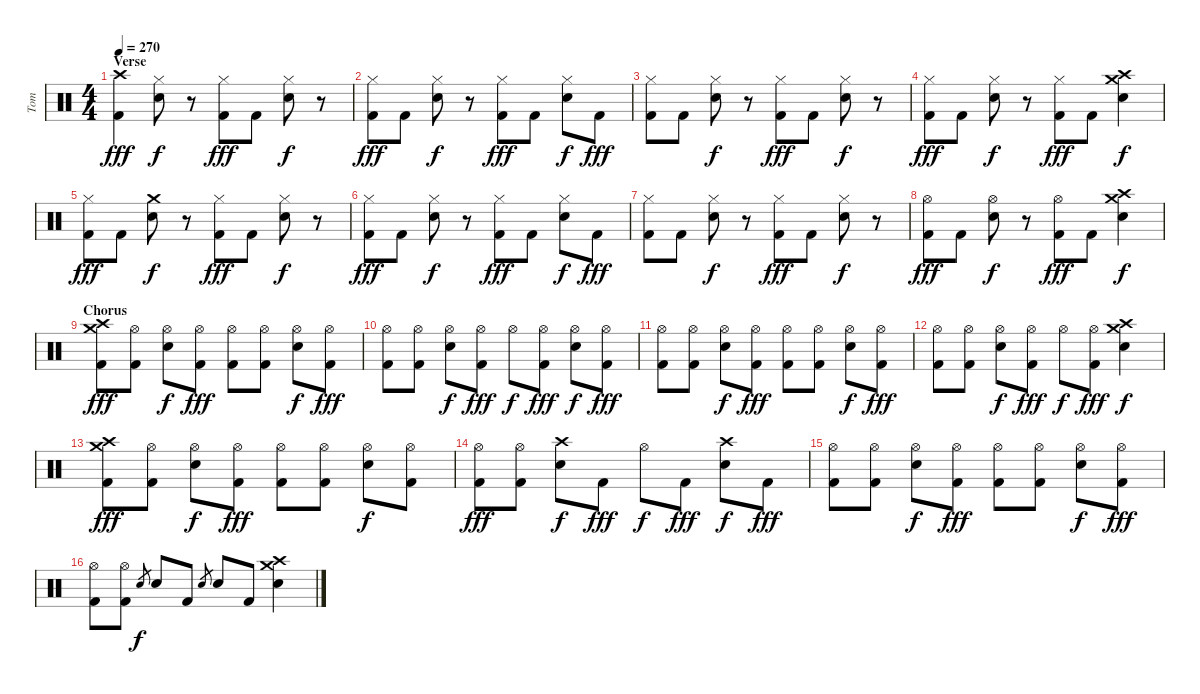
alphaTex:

\track ("Tom" "Tom") {instrument percussion}
\staff {score}
\articulation defaults
\ts (4 4)
\section ("" "Verse")
\tempo 270
\clef neutral
\ks c
("Crash high (hit)" "Kick (hit) 2").4{dy fff} ("Electric Snare (hit)" "Hi-Hat (closed)").8{dy f} r.8 ("Kick (hit) 2" "Hi-Hat (closed)").8{dy fff} "Kick (hit) 2".8 ("Electric Snare (hit)" "Hi-Hat (closed)").8{dy f} r.8 |
("Kick (hit) 2" "Hi-Hat (closed)").8{dy fff} "Kick (hit) 2".8 ("Electric Snare (hit)" "Hi-Hat (closed)").8{dy f} r.8 ("Kick (hit) 2" "Hi-Hat (closed)").8{dy fff} "Kick (hit) 2".8 ("Electric Snare (hit)" "Hi-Hat (closed)").8{dy f} "Kick (hit) 2".8{dy fff} |
("Kick (hit) 2" "Hi-Hat (closed)").8 "Kick (hit) 2".8 ("Electric Snare (hit)" "Hi-Hat (closed)").8{dy f} r.8 ("Kick (hit) 2" "Hi-Hat (closed)").8{dy fff} "Kick (hit) 2".8 ("Electric Snare (hit)" "Hi-Hat (closed)").8{dy f} r.8 |
("Kick (hit) 2" "Hi-Hat (closed)").8{dy fff} "Kick (hit) 2".8 ("Electric Snare (hit)" "Hi-Hat (closed)").8{dy f} r.8 ("Kick (hit) 2" "Hi-Hat (closed)").8{dy fff} "Kick (hit) 2".8 ("Electric Snare (hit)" "Crash medium (hit)" "Crash high (hit)").4{dy f} |
("Kick (hit) 2" "Hi-Hat (closed)").8{dy fff} "Kick (hit) 2".8 ("Crash medium (hit)" "Electric Snare (hit)").8{dy f} r.8 ("Kick (hit) 2" "Hi-Hat (closed)").8{dy fff} "Kick (hit) 2".8 ("Electric Snare (hit)" "Hi-Hat (closed)").8{dy f} r.8 |
("Kick (hit) 2" "Hi-Hat (closed)").8{dy fff} "Kick (hit) 2".8 ("Electric Snare (hit)" "Hi-Hat (closed)").8{dy f} r.8 ("Kick (hit) 2" "Hi-Hat (closed)").8{dy fff} "Kick (hit) 2".8 ("Electric Snare (hit)" "Hi-Hat (closed)").8{dy f} "Kick (hit) 2".8{dy fff} |
("Kick (hit) 2" "Hi-Hat (closed)").8 "Kick (hit) 2".8 ("Electric Snare (hit)" "Hi-Hat (closed)").8{dy f} r.8 ("Kick (hit) 2" "Hi-Hat (closed)").8{dy fff} "Kick (hit) 2".8 ("Electric Snare (hit)" "Hi-Hat (closed)").8{dy f} r.8 |
("Kick (hit) 2" "Hi-Hat (open)").8{dy fff} "Kick (hit) 2".8 ("Electric Snare (hit)" "Hi-Hat (open)").8{dy f} r.8 ("Kick (hit) 2" "Hi-Hat (open)").8{dy fff} "Kick (hit) 2".8 ("Electric Snare (hit)" "Crash medium (hit)" "Crash high (hit)").4{dy f} |
\section ("" "Chorus")
("Kick (hit) 2" "Crash medium (hit)" "Crash high (hit)").8{dy fff} ("Kick (hit) 2" "Hi-Hat (open)").8 ("Electric Snare (hit)" "Hi-Hat (open)").8{dy f} ("Kick (hit) 2" "Hi-Hat (open)").8{dy fff} ("Kick (hit) 2" "Hi-Hat (open)").8 ("Kick (hit) 2" "Hi-Hat (open)").8 ("Electric Snare (hit)" "Hi-Hat (open)").8{dy f} ("Kick (hit) 2" "Hi-Hat (open)").8{dy fff} |
("Kick (hit) 2" "Hi-Hat (open)").8 ("Kick (hit) 2" "Hi-Hat (open)").8 ("Electric Snare (hit)" "Hi-Hat (open)").8{dy f} ("Kick (hit) 2" "Hi-Hat (open)").8{dy fff} "Hi-Hat (open)".8{dy f} ("Kick (hit) 2" "Hi-Hat (open)").8{dy fff} ("Electric Snare (hit)" "Hi-Hat (open)").8{dy f} ("Kick (hit) 2" "Hi-Hat (open)").8{dy fff} |
("Kick (hit) 2" "Hi-Hat (open)").8 ("Kick (hit) 2" "Hi-Hat (open)").8 ("Electric Snare (hit)" "Hi-Hat (open)").8{dy f} ("Kick (hit) 2" "Hi-Hat (open)").8{dy fff} ("Kick (hit) 2" "Hi-Hat (open)").8 ("Kick (hit) 2" "Hi-Hat (open)").8 ("Electric Snare (hit)" "Hi-Hat (open)").8{dy f} ("Kick (hit) 2" "Hi-Hat (open)").8{dy fff} |
("Kick (hit) 2" "Hi-Hat (open)").8 ("Kick (hit) 2" "Hi-Hat (open)").8 ("Electric Snare (hit)" "Hi-Hat (open)").8{dy f} ("Kick (hit) 2" "Hi-Hat (open)").8{dy fff} "Hi-Hat (open)".8{dy f} ("Kick (hit) 2" "Hi-Hat (open)").8{dy fff} ("Electric Snare (hit)" "Crash medium (hit)" "Crash high (hit)").4{dy f} |
("Kick (hit) 2" "Crash medium (hit)" "Crash high (hit)").8{dy fff} ("Kick (hit) 2" "Hi-Hat (open)").8 ("Electric Snare (hit)" "Hi-Hat (open)").8{dy f} ("Kick (hit) 2" "Hi-Hat (open)").8{dy fff} ("Kick (hit) 2" "Hi-Hat (open)").8 ("Kick (hit) 2" "Hi-Hat (open)").8 ("Electric Snare (hit)" "Hi-Hat (open)").8{dy f} ("Kick (hit) 2" "Hi-Hat (open)").8 |
("Kick (hit) 2" "Hi-Hat (open)").8{dy fff} ("Kick (hit) 2" "Hi-Hat (open)").8 ("Electric Snare (hit)" "Crash high (hit)").8{dy f} "Kick (hit) 2".8{dy fff} "Hi-Hat (open)".8{dy f} "Kick (hit) 2".8{dy fff} ("Electric Snare (hit)" "Crash high (hit)").8{dy f} "Kick (hit) 2".8{dy fff} |
("Kick (hit) 2" "Hi-Hat (open)").8 ("Kick (hit) 2" "Hi-Hat (open)").8 ("Electric Snare (hit)" "Hi-Hat (open)").8{dy f} ("Kick (hit) 2" "Hi-Hat (open)").8{dy fff} ("Kick (hit) 2" "Hi-Hat (open)").8 ("Kick (hit) 2" "Hi-Hat (open)").8 ("Electric Snare (hit)" "Hi-Hat (open)").8{dy f} ("Kick (hit) 2" "Hi-Hat (open)").8{dy fff} |
("Kick (hit) 2" "Hi-Hat (open)").8 ("Kick (hit) 2" "Hi-Hat (open)").8 "Electric Snare (hit)".8{gr dy f} "Electric Snare (hit)".8 "Kick (hit) 2".8 "Electric Snare (hit)".8{gr} "Electric Snare (hit)".8 "Kick (hit) 2".8 ("Electric Snare (hit)" "Crash high (hit)" "Crash medium (hit)").4
